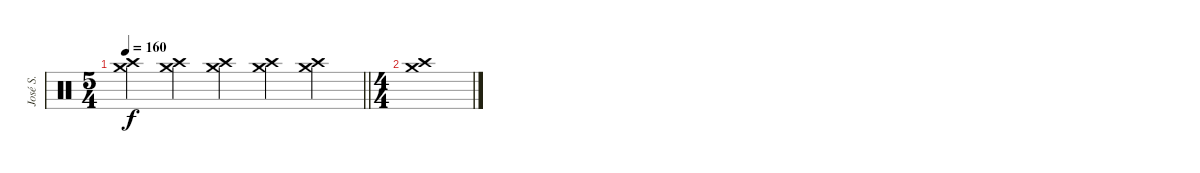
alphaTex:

\track ("José S." "José S.") {instrument percussion}
\staff {score}
\articulation defaults
\ts (5 4)
\tempo 160
\clef neutral
\barLineRight lightlight
\ks c
("Crash high (hit)" "Crash medium (hit)").4{dy f} ("Crash high (hit)" "Crash medium (hit)").4 ("Crash high (hit)" "Crash medium (hit)").4 ("Crash high (hit)" "Crash medium (hit)").4 ("Crash high (hit)" "Crash medium (hit)").4 |
\ts (4 4)
("Crash high (hit)" "Crash medium (hit)").1
